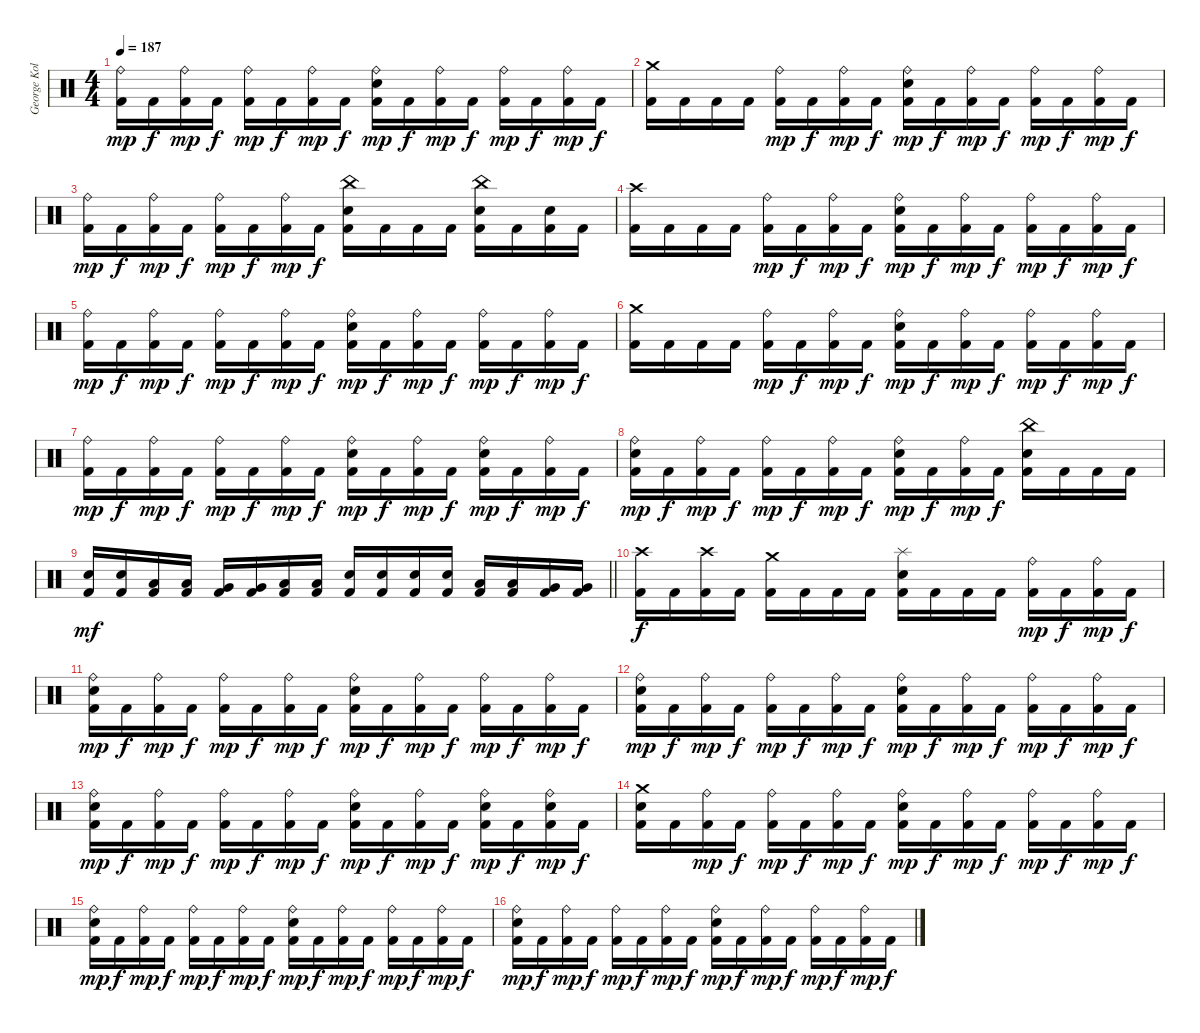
\track ("George Kollias" "George Kol") {instrument percussion}
\staff {score}
\articulation defaults
\ts (4 4)
\tempo 187
\clef neutral
\ks c
("Ride (bell)" "Kick (hit) 2").16{dy mp} "Kick (hit) 2".16{dy f} ("Ride (bell)" "Kick (hit) 2").16{dy mp} "Kick (hit) 2".16{dy f} ("Ride (bell)" "Kick (hit) 2").16{dy mp} "Kick (hit) 2".16{dy f} ("Ride (bell)" "Kick (hit) 2").16{dy mp} "Kick (hit) 2".16{dy f} ("Ride (bell)" "Electric Snare (hit)" "Kick (hit) 2").16{dy mp} "Kick (hit) 2".16{dy f} ("Ride (bell)" "Kick (hit) 2").16{dy mp} "Kick (hit) 2".16{dy f} ("Ride (bell)" "Kick (hit) 2").16{dy mp} "Kick (hit) 2".16{dy f} ("Ride (bell)" "Kick (hit) 2").16{dy mp} "Kick (hit) 2".16{dy f} |
("Crash medium (hit)" "Kick (hit) 2").16 "Kick (hit) 2".16 "Kick (hit) 2".16 "Kick (hit) 2".16 ("Ride (bell)" "Kick (hit) 2").16{dy mp} "Kick (hit) 2".16{dy f} ("Ride (bell)" "Kick (hit) 2").16{dy mp} "Kick (hit) 2".16{dy f} ("Ride (bell)" "Electric Snare (hit)" "Kick (hit) 2").16{dy mp} "Kick (hit) 2".16{dy f} ("Ride (bell)" "Kick (hit) 2").16{dy mp} "Kick (hit) 2".16{dy f} ("Ride (bell)" "Kick (hit) 2").16{dy mp} "Kick (hit) 2".16{dy f} ("Ride (bell)" "Kick (hit) 2").16{dy mp} "Kick (hit) 2".16{dy f} |
("Ride (bell)" "Kick (hit) 2").16{dy mp} "Kick (hit) 2".16{dy f} ("Ride (bell)" "Kick (hit) 2").16{dy mp} "Kick (hit) 2".16{dy f} ("Ride (bell)" "Kick (hit) 2").16{dy mp} "Kick (hit) 2".16{dy f} ("Ride (bell)" "Kick (hit) 2").16{dy mp} "Kick (hit) 2".16{dy f} ("China (hit)" "Electric Snare (hit)" "Kick (hit) 2").16 "Kick (hit) 2".16 "Kick (hit) 2".16 "Kick (hit) 2".16 ("China (hit)" "Electric Snare (hit)" "Kick (hit) 2").16 "Kick (hit) 2".16 ("Electric Snare (hit)" "Kick (hit) 2").16 "Kick (hit) 2".16 |
("Crash high (hit)" "Kick (hit) 2").16 "Kick (hit) 2".16 "Kick (hit) 2".16 "Kick (hit) 2".16 ("Ride (bell)" "Kick (hit) 2").16{dy mp} "Kick (hit) 2".16{dy f} ("Ride (bell)" "Kick (hit) 2").16{dy mp} "Kick (hit) 2".16{dy f} ("Ride (bell)" "Electric Snare (hit)" "Kick (hit) 2").16{dy mp} "Kick (hit) 2".16{dy f} ("Ride (bell)" "Kick (hit) 2").16{dy mp} "Kick (hit) 2".16{dy f} ("Ride (bell)" "Kick (hit) 2").16{dy mp} "Kick (hit) 2".16{dy f} ("Ride (bell)" "Kick (hit) 2").16{dy mp} "Kick (hit) 2".16{dy f} |
("Ride (bell)" "Kick (hit) 2").16{dy mp} "Kick (hit) 2".16{dy f} ("Ride (bell)" "Kick (hit) 2").16{dy mp} "Kick (hit) 2".16{dy f} ("Ride (bell)" "Kick (hit) 2").16{dy mp} "Kick (hit) 2".16{dy f} ("Ride (bell)" "Kick (hit) 2").16{dy mp} "Kick (hit) 2".16{dy f} ("Ride (bell)" "Electric Snare (hit)" "Kick (hit) 2").16{dy mp} "Kick (hit) 2".16{dy f} ("Ride (bell)" "Kick (hit) 2").16{dy mp} "Kick (hit) 2".16{dy f} ("Ride (bell)" "Kick (hit) 2").16{dy mp} "Kick (hit) 2".16{dy f} ("Ride (bell)" "Kick (hit) 2").16{dy mp} "Kick (hit) 2".16{dy f} |
("Crash medium (hit)" "Kick (hit) 2").16 "Kick (hit) 2".16 "Kick (hit) 2".16 "Kick (hit) 2".16 ("Ride (bell)" "Kick (hit) 2").16{dy mp} "Kick (hit) 2".16{dy f} ("Ride (bell)" "Kick (hit) 2").16{dy mp} "Kick (hit) 2".16{dy f} ("Ride (bell)" "Electric Snare (hit)" "Kick (hit) 2").16{dy mp} "Kick (hit) 2".16{dy f} ("Ride (bell)" "Kick (hit) 2").16{dy mp} "Kick (hit) 2".16{dy f} ("Ride (bell)" "Kick (hit) 2").16{dy mp} "Kick (hit) 2".16{dy f} ("Ride (bell)" "Kick (hit) 2").16{dy mp} "Kick (hit) 2".16{dy f} |
("Ride (bell)" "Kick (hit) 2").16{dy mp} "Kick (hit) 2".16{dy f} ("Ride (bell)" "Kick (hit) 2").16{dy mp} "Kick (hit) 2".16{dy f} ("Ride (bell)" "Kick (hit) 2").16{dy mp} "Kick (hit) 2".16{dy f} ("Ride (bell)" "Kick (hit) 2").16{dy mp} "Kick (hit) 2".16{dy f} ("Ride (bell)" "Electric Snare (hit)" "Kick (hit) 2").16{dy mp} "Kick (hit) 2".16{dy f} ("Ride (bell)" "Kick (hit) 2").16{dy mp} "Kick (hit) 2".16{dy f} ("Ride (bell)" "Electric Snare (hit)" "Kick (hit) 2").16{dy mp} "Kick (hit) 2".16{dy f} ("Ride (bell)" "Kick (hit) 2").16{dy mp} "Kick (hit) 2".16{dy f} |
("Ride (bell)" "Electric Snare (hit)" "Kick (hit) 2").16{dy mp} "Kick (hit) 2".16{dy f} ("Ride (bell)" "Kick (hit) 2").16{dy mp} "Kick (hit) 2".16{dy f} ("Ride (bell)" "Kick (hit) 2").16{dy mp} "Kick (hit) 2".16{dy f} ("Ride (bell)" "Kick (hit) 2").16{dy mp} "Kick (hit) 2".16{dy f} ("Ride (bell)" "Electric Snare (hit)" "Kick (hit) 2").16{dy mp} "Kick (hit) 2".16{dy f} ("Ride (bell)" "Kick (hit) 2").16{dy mp} "Kick (hit) 2".16{dy f} ("China (hit)" "Electric Snare (hit)" "Kick (hit) 2").16 "Kick (hit) 2".16 "Kick (hit) 2".16 "Kick (hit) 2".16 |
\barLineRight lightlight
("Electric Snare (hit)" "Kick (hit) 2").16{dy mf} ("Electric Snare (hit)" "Kick (hit) 2").16 ("Low Tom (hit)" "Kick (hit) 2").16 ("Low Tom (hit)" "Kick (hit) 2").16 ("Very Low Tom (hit)" "Kick (hit) 2").16 ("Very Low Tom (hit)" "Kick (hit) 2").16 ("Low Tom (hit)" "Kick (hit) 2").16 ("Low Tom (hit)" "Kick (hit) 2").16 ("Electric Snare (hit)" "Kick (hit) 2").16 ("Electric Snare (hit)" "Kick (hit) 2").16 ("Electric Snare (hit)" "Kick (hit) 2").16 ("Electric Snare (hit)" "Kick (hit) 2").16 ("Low Tom (hit)" "Kick (hit) 2").16 ("Low Tom (hit)" "Kick (hit) 2").16 ("Very Low Tom (hit)" "Kick (hit) 2").16 ("Very Low Tom (hit)" "Kick (hit) 2").16 |
\section ("" "")
("Crash high (hit)" "Kick (hit) 2").16{dy f} "Kick (hit) 2".16 ("Crash high (hit)" "Kick (hit) 2").16 "Kick (hit) 2".16 ("Crash medium (hit)" "Kick (hit) 2").16 "Kick (hit) 2".16 "Kick (hit) 2".16 "Kick (hit) 2".16 ("Splash (hit)" "Electric Snare (hit)" "Kick (hit) 2").16 "Kick (hit) 2".16 "Kick (hit) 2".16 "Kick (hit) 2".16 ("Ride (bell)" "Kick (hit) 2").16{dy mp} "Kick (hit) 2".16{dy f} ("Ride (bell)" "Kick (hit) 2").16{dy mp} "Kick (hit) 2".16{dy f} |
("Ride (bell)" "Electric Snare (hit)" "Kick (hit) 2").16{dy mp} "Kick (hit) 2".16{dy f} ("Ride (bell)" "Kick (hit) 2").16{dy mp} "Kick (hit) 2".16{dy f} ("Ride (bell)" "Kick (hit) 2").16{dy mp} "Kick (hit) 2".16{dy f} ("Ride (bell)" "Kick (hit) 2").16{dy mp} "Kick (hit) 2".16{dy f} ("Ride (bell)" "Electric Snare (hit)" "Kick (hit) 2").16{dy mp} "Kick (hit) 2".16{dy f} ("Ride (bell)" "Kick (hit) 2").16{dy mp} "Kick (hit) 2".16{dy f} ("Ride (bell)" "Kick (hit) 2").16{dy mp} "Kick (hit) 2".16{dy f} ("Ride (bell)" "Kick (hit) 2").16{dy mp} "Kick (hit) 2".16{dy f} |
("Ride (bell)" "Electric Snare (hit)" "Kick (hit) 2").16{dy mp} "Kick (hit) 2".16{dy f} ("Ride (bell)" "Kick (hit) 2").16{dy mp} "Kick (hit) 2".16{dy f} ("Ride (bell)" "Kick (hit) 2").16{dy mp} "Kick (hit) 2".16{dy f} ("Ride (bell)" "Kick (hit) 2").16{dy mp} "Kick (hit) 2".16{dy f} ("Ride (bell)" "Electric Snare (hit)" "Kick (hit) 2").16{dy mp} "Kick (hit) 2".16{dy f} ("Ride (bell)" "Kick (hit) 2").16{dy mp} "Kick (hit) 2".16{dy f} ("Ride (bell)" "Kick (hit) 2").16{dy mp} "Kick (hit) 2".16{dy f} ("Ride (bell)" "Kick (hit) 2").16{dy mp} "Kick (hit) 2".16{dy f} |
("Ride (bell)" "Electric Snare (hit)" "Kick (hit) 2").16{dy mp} "Kick (hit) 2".16{dy f} ("Ride (bell)" "Kick (hit) 2").16{dy mp} "Kick (hit) 2".16{dy f} ("Ride (bell)" "Kick (hit) 2").16{dy mp} "Kick (hit) 2".16{dy f} ("Ride (bell)" "Kick (hit) 2").16{dy mp} "Kick (hit) 2".16{dy f} ("Ride (bell)" "Electric Snare (hit)" "Kick (hit) 2").16{dy mp} "Kick (hit) 2".16{dy f} ("Ride (bell)" "Kick (hit) 2").16{dy mp} "Kick (hit) 2".16{dy f} ("Ride (bell)" "Electric Snare (hit)" "Kick (hit) 2").16{dy mp} "Kick (hit) 2".16{dy f} ("Ride (bell)" "Electric Snare (hit)" "Kick (hit) 2").16{dy mp} "Kick (hit) 2".16{dy f} |
("Crash medium (hit)" "Electric Snare (hit)" "Kick (hit) 2").16 "Kick (hit) 2".16 ("Ride (bell)" "Kick (hit) 2").16{dy mp} "Kick (hit) 2".16{dy f} ("Ride (bell)" "Kick (hit) 2").16{dy mp} "Kick (hit) 2".16{dy f} ("Ride (bell)" "Kick (hit) 2").16{dy mp} "Kick (hit) 2".16{dy f} ("Ride (bell)" "Electric Snare (hit)" "Kick (hit) 2").16{dy mp} "Kick (hit) 2".16{dy f} ("Ride (bell)" "Kick (hit) 2").16{dy mp} "Kick (hit) 2".16{dy f} ("Ride (bell)" "Kick (hit) 2").16{dy mp} "Kick (hit) 2".16{dy f} ("Ride (bell)" "Kick (hit) 2").16{dy mp} "Kick (hit) 2".16{dy f} |
("Ride (bell)" "Electric Snare (hit)" "Kick (hit) 2").16{dy mp} "Kick (hit) 2".16{dy f} ("Ride (bell)" "Kick (hit) 2").16{dy mp} "Kick (hit) 2".16{dy f} ("Ride (bell)" "Kick (hit) 2").16{dy mp} "Kick (hit) 2".16{dy f} ("Ride (bell)" "Kick (hit) 2").16{dy mp} "Kick (hit) 2".16{dy f} ("Ride (bell)" "Electric Snare (hit)" "Kick (hit) 2").16{dy mp} "Kick (hit) 2".16{dy f} ("Ride (bell)" "Kick (hit) 2").16{dy mp} "Kick (hit) 2".16{dy f} ("Ride (bell)" "Kick (hit) 2").16{dy mp} "Kick (hit) 2".16{dy f} ("Ride (bell)" "Kick (hit) 2").16{dy mp} "Kick (hit) 2".16{dy f} |
("Ride (bell)" "Electric Snare (hit)" "Kick (hit) 2").16{dy mp} "Kick (hit) 2".16{dy f} ("Ride (bell)" "Kick (hit) 2").16{dy mp} "Kick (hit) 2".16{dy f} ("Ride (bell)" "Kick (hit) 2").16{dy mp} "Kick (hit) 2".16{dy f} ("Ride (bell)" "Kick (hit) 2").16{dy mp} "Kick (hit) 2".16{dy f} ("Ride (bell)" "Electric Snare (hit)" "Kick (hit) 2").16{dy mp} "Kick (hit) 2".16{dy f} ("Ride (bell)" "Kick (hit) 2").16{dy mp} "Kick (hit) 2".16{dy f} ("Ride (bell)" "Kick (hit) 2").16{dy mp} "Kick (hit) 2".16{dy f} ("Ride (bell)" "Kick (hit) 2").16{dy mp} "Kick (hit) 2".16{dy f}
